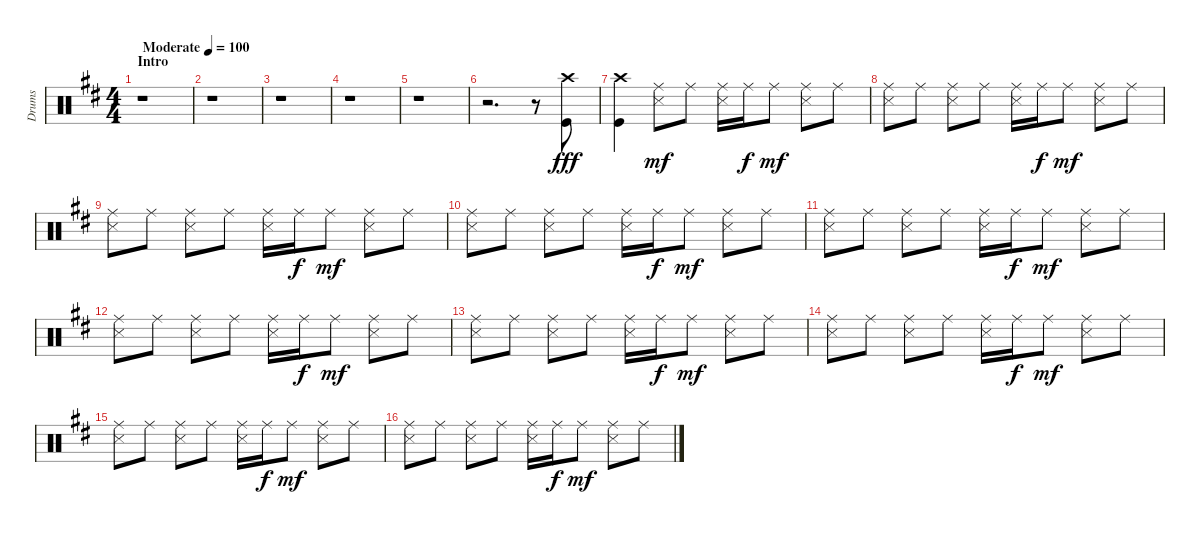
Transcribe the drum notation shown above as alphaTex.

\track ("Drums" "Drums") {instrument percussion}
\staff {score}
\articulation defaults
\ts (4 4)
\section ("" "Intro")
\tempo (100 "Moderate")
\clef neutral
\ks d
r.1{dy fff} |
r.1 |
r.1 |
r.1 |
r.1 |
r.2{d} r.8 ("Crash high (hit)" "Kick (hit)").8 |
("Crash high (hit)" "Kick (hit)").4 ("Ride (middle)" "Snare (side stick) 3").8{dy mf} "Ride (middle)".8 ("Ride (middle)" "Snare (side stick) 3").16 "Ride (middle)".16{dy f} "Ride (middle)".8{dy mf} ("Ride (middle)" "Snare (side stick) 3").8 "Ride (middle)".8 |
("Ride (middle)" "Snare (side stick) 3").8 "Ride (middle)".8 ("Ride (middle)" "Snare (side stick) 3").8 "Ride (middle)".8 ("Ride (middle)" "Snare (side stick) 3").16 "Ride (middle)".16{dy f} "Ride (middle)".8{dy mf} ("Ride (middle)" "Snare (side stick) 3").8 "Ride (middle)".8 |
("Ride (middle)" "Snare (side stick) 3").8 "Ride (middle)".8 ("Ride (middle)" "Snare (side stick) 3").8 "Ride (middle)".8 ("Ride (middle)" "Snare (side stick) 3").16 "Ride (middle)".16{dy f} "Ride (middle)".8{dy mf} ("Ride (middle)" "Snare (side stick) 3").8 "Ride (middle)".8 |
("Ride (middle)" "Snare (side stick) 3").8 "Ride (middle)".8 ("Ride (middle)" "Snare (side stick) 3").8 "Ride (middle)".8 ("Ride (middle)" "Snare (side stick) 3").16 "Ride (middle)".16{dy f} "Ride (middle)".8{dy mf} ("Ride (middle)" "Snare (side stick) 3").8 "Ride (middle)".8 |
("Ride (middle)" "Snare (side stick) 3").8 "Ride (middle)".8 ("Ride (middle)" "Snare (side stick) 3").8 "Ride (middle)".8 ("Ride (middle)" "Snare (side stick) 3").16 "Ride (middle)".16{dy f} "Ride (middle)".8{dy mf} ("Ride (middle)" "Snare (side stick) 3").8 "Ride (middle)".8 |
("Ride (middle)" "Snare (side stick) 3").8 "Ride (middle)".8 ("Ride (middle)" "Snare (side stick) 3").8 "Ride (middle)".8 ("Ride (middle)" "Snare (side stick) 3").16 "Ride (middle)".16{dy f} "Ride (middle)".8{dy mf} ("Ride (middle)" "Snare (side stick) 3").8 "Ride (middle)".8 |
("Ride (middle)" "Snare (side stick) 3").8 "Ride (middle)".8 ("Ride (middle)" "Snare (side stick) 3").8 "Ride (middle)".8 ("Ride (middle)" "Snare (side stick) 3").16 "Ride (middle)".16{dy f} "Ride (middle)".8{dy mf} ("Ride (middle)" "Snare (side stick) 3").8 "Ride (middle)".8 |
("Ride (middle)" "Snare (side stick) 3").8 "Ride (middle)".8 ("Ride (middle)" "Snare (side stick) 3").8 "Ride (middle)".8 ("Ride (middle)" "Snare (side stick) 3").16 "Ride (middle)".16{dy f} "Ride (middle)".8{dy mf} ("Ride (middle)" "Snare (side stick) 3").8 "Ride (middle)".8 |
("Ride (middle)" "Snare (side stick) 3").8 "Ride (middle)".8 ("Ride (middle)" "Snare (side stick) 3").8 "Ride (middle)".8 ("Ride (middle)" "Snare (side stick) 3").16 "Ride (middle)".16{dy f} "Ride (middle)".8{dy mf} ("Ride (middle)" "Snare (side stick) 3").8 "Ride (middle)".8 |
("Ride (middle)" "Snare (side stick) 3").8 "Ride (middle)".8 ("Ride (middle)" "Snare (side stick) 3").8 "Ride (middle)".8 ("Ride (middle)" "Snare (side stick) 3").16 "Ride (middle)".16{dy f} "Ride (middle)".8{dy mf} ("Ride (middle)" "Snare (side stick) 3").8 "Ride (middle)".8
